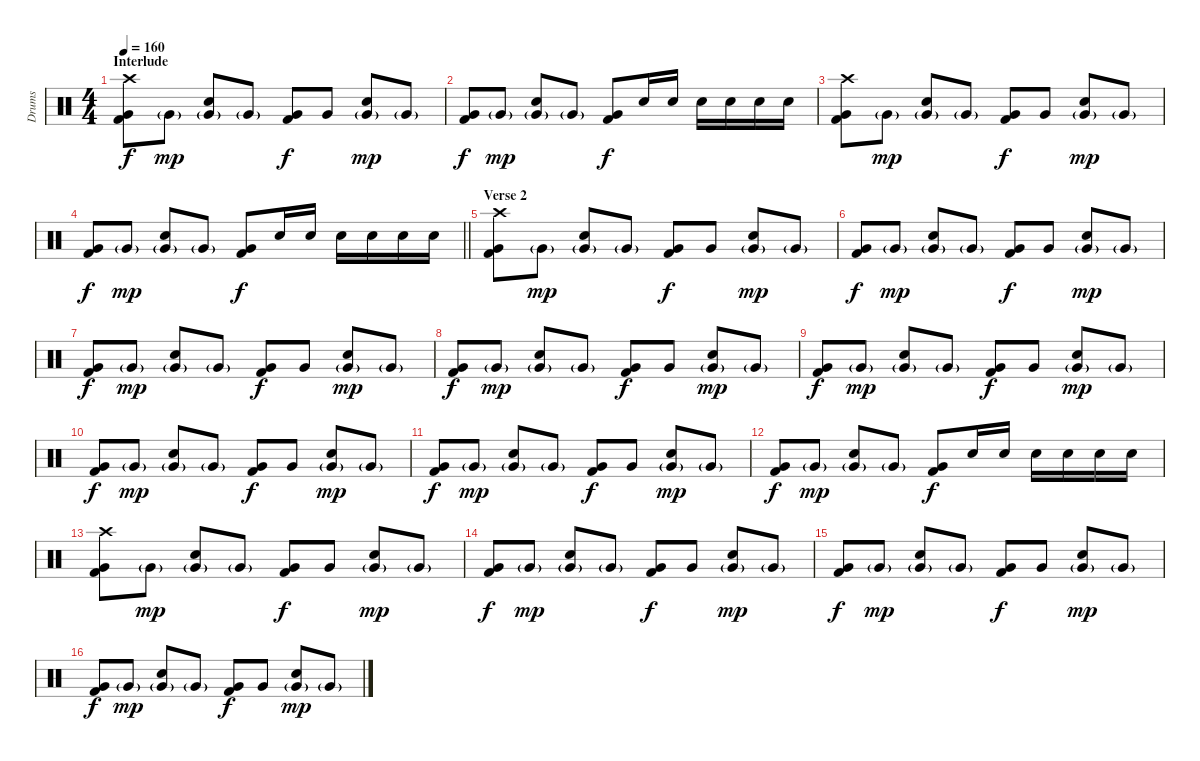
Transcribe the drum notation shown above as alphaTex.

\track ("Drums" "Drums") {instrument percussion}
\staff {score}
\articulation defaults
\ts (4 4)
\section ("" "Interlude")
\tempo 160
\clef neutral
\ks c
("Crash high (hit)" "Very Low Tom (hit)" "Kick (hit) 2").8{dy f} "Very Low Tom (hit)"{g}.8{dy mp} ("Electric Snare (hit)" "Very Low Tom (hit)"{g}).8 "Very Low Tom (hit)"{g}.8 ("Very Low Tom (hit)" "Kick (hit) 2").8{dy f} "Very Low Tom (hit)".8 ("Electric Snare (hit)" "Very Low Tom (hit)"{g}).8{dy mp} "Very Low Tom (hit)"{g}.8 |
("Very Low Tom (hit)" "Kick (hit) 2").8{dy f} "Very Low Tom (hit)"{g}.8{dy mp} ("Electric Snare (hit)" "Very Low Tom (hit)"{g}).8 "Very Low Tom (hit)"{g}.8 ("Very Low Tom (hit)" "Kick (hit) 2").8{dy f} "Electric Snare (hit)".16 "Electric Snare (hit)".16 "Electric Snare (hit)".16 "Electric Snare (hit)".16 "Electric Snare (hit)".16 "Electric Snare (hit)".16 |
("Crash high (hit)" "Very Low Tom (hit)" "Kick (hit) 2").8 "Very Low Tom (hit)"{g}.8{dy mp} ("Electric Snare (hit)" "Very Low Tom (hit)"{g}).8 "Very Low Tom (hit)"{g}.8 ("Very Low Tom (hit)" "Kick (hit) 2").8{dy f} "Very Low Tom (hit)".8 ("Electric Snare (hit)" "Very Low Tom (hit)"{g}).8{dy mp} "Very Low Tom (hit)"{g}.8 |
\barLineRight lightlight
("Very Low Tom (hit)" "Kick (hit) 2").8{dy f} "Very Low Tom (hit)"{g}.8{dy mp} ("Electric Snare (hit)" "Very Low Tom (hit)"{g}).8 "Very Low Tom (hit)"{g}.8 ("Very Low Tom (hit)" "Kick (hit) 2").8{dy f} "Electric Snare (hit)".16 "Electric Snare (hit)".16 "Electric Snare (hit)".16 "Electric Snare (hit)".16 "Electric Snare (hit)".16 "Electric Snare (hit)".16 |
\section ("" "Verse 2")
("Crash high (hit)" "Very Low Tom (hit)" "Kick (hit) 2").8 "Very Low Tom (hit)"{g}.8{dy mp} ("Electric Snare (hit)" "Very Low Tom (hit)"{g}).8 "Very Low Tom (hit)"{g}.8 ("Very Low Tom (hit)" "Kick (hit) 2").8{dy f} "Very Low Tom (hit)".8 ("Electric Snare (hit)" "Very Low Tom (hit)"{g}).8{dy mp} "Very Low Tom (hit)"{g}.8 |
("Very Low Tom (hit)" "Kick (hit) 2").8{dy f} "Very Low Tom (hit)"{g}.8{dy mp} ("Electric Snare (hit)" "Very Low Tom (hit)"{g}).8 "Very Low Tom (hit)"{g}.8 ("Very Low Tom (hit)" "Kick (hit) 2").8{dy f} "Very Low Tom (hit)".8 ("Electric Snare (hit)" "Very Low Tom (hit)"{g}).8{dy mp} "Very Low Tom (hit)"{g}.8 |
("Very Low Tom (hit)" "Kick (hit) 2").8{dy f} "Very Low Tom (hit)"{g}.8{dy mp} ("Electric Snare (hit)" "Very Low Tom (hit)"{g}).8 "Very Low Tom (hit)"{g}.8 ("Very Low Tom (hit)" "Kick (hit) 2").8{dy f} "Very Low Tom (hit)".8 ("Electric Snare (hit)" "Very Low Tom (hit)"{g}).8{dy mp} "Very Low Tom (hit)"{g}.8 |
("Very Low Tom (hit)" "Kick (hit) 2").8{dy f} "Very Low Tom (hit)"{g}.8{dy mp} ("Electric Snare (hit)" "Very Low Tom (hit)"{g}).8 "Very Low Tom (hit)"{g}.8 ("Very Low Tom (hit)" "Kick (hit) 2").8{dy f} "Very Low Tom (hit)".8 ("Electric Snare (hit)" "Very Low Tom (hit)"{g}).8{dy mp} "Very Low Tom (hit)"{g}.8 |
("Very Low Tom (hit)" "Kick (hit) 2").8{dy f} "Very Low Tom (hit)"{g}.8{dy mp} ("Electric Snare (hit)" "Very Low Tom (hit)"{g}).8 "Very Low Tom (hit)"{g}.8 ("Very Low Tom (hit)" "Kick (hit) 2").8{dy f} "Very Low Tom (hit)".8 ("Electric Snare (hit)" "Very Low Tom (hit)"{g}).8{dy mp} "Very Low Tom (hit)"{g}.8 |
("Very Low Tom (hit)" "Kick (hit) 2").8{dy f} "Very Low Tom (hit)"{g}.8{dy mp} ("Electric Snare (hit)" "Very Low Tom (hit)"{g}).8 "Very Low Tom (hit)"{g}.8 ("Very Low Tom (hit)" "Kick (hit) 2").8{dy f} "Very Low Tom (hit)".8 ("Electric Snare (hit)" "Very Low Tom (hit)"{g}).8{dy mp} "Very Low Tom (hit)"{g}.8 |
("Very Low Tom (hit)" "Kick (hit) 2").8{dy f} "Very Low Tom (hit)"{g}.8{dy mp} ("Electric Snare (hit)" "Very Low Tom (hit)"{g}).8 "Very Low Tom (hit)"{g}.8 ("Very Low Tom (hit)" "Kick (hit) 2").8{dy f} "Very Low Tom (hit)".8 ("Electric Snare (hit)" "Very Low Tom (hit)"{g}).8{dy mp} "Very Low Tom (hit)"{g}.8 |
("Very Low Tom (hit)" "Kick (hit) 2").8{dy f} "Very Low Tom (hit)"{g}.8{dy mp} ("Electric Snare (hit)" "Very Low Tom (hit)"{g}).8 "Very Low Tom (hit)"{g}.8 ("Very Low Tom (hit)" "Kick (hit) 2").8{dy f} "Electric Snare (hit)".16 "Electric Snare (hit)".16 "Electric Snare (hit)".16 "Electric Snare (hit)".16 "Electric Snare (hit)".16 "Electric Snare (hit)".16 |
("Crash high (hit)" "Very Low Tom (hit)" "Kick (hit) 2").8 "Very Low Tom (hit)"{g}.8{dy mp} ("Electric Snare (hit)" "Very Low Tom (hit)"{g}).8 "Very Low Tom (hit)"{g}.8 ("Very Low Tom (hit)" "Kick (hit) 2").8{dy f} "Very Low Tom (hit)".8 ("Electric Snare (hit)" "Very Low Tom (hit)"{g}).8{dy mp} "Very Low Tom (hit)"{g}.8 |
("Very Low Tom (hit)" "Kick (hit) 2").8{dy f} "Very Low Tom (hit)"{g}.8{dy mp} ("Electric Snare (hit)" "Very Low Tom (hit)"{g}).8 "Very Low Tom (hit)"{g}.8 ("Very Low Tom (hit)" "Kick (hit) 2").8{dy f} "Very Low Tom (hit)".8 ("Electric Snare (hit)" "Very Low Tom (hit)"{g}).8{dy mp} "Very Low Tom (hit)"{g}.8 |
("Very Low Tom (hit)" "Kick (hit) 2").8{dy f} "Very Low Tom (hit)"{g}.8{dy mp} ("Electric Snare (hit)" "Very Low Tom (hit)"{g}).8 "Very Low Tom (hit)"{g}.8 ("Very Low Tom (hit)" "Kick (hit) 2").8{dy f} "Very Low Tom (hit)".8 ("Electric Snare (hit)" "Very Low Tom (hit)"{g}).8{dy mp} "Very Low Tom (hit)"{g}.8 |
("Very Low Tom (hit)" "Kick (hit) 2").8{dy f} "Very Low Tom (hit)"{g}.8{dy mp} ("Electric Snare (hit)" "Very Low Tom (hit)"{g}).8 "Very Low Tom (hit)"{g}.8 ("Very Low Tom (hit)" "Kick (hit) 2").8{dy f} "Very Low Tom (hit)".8 ("Electric Snare (hit)" "Very Low Tom (hit)"{g}).8{dy mp} "Very Low Tom (hit)"{g}.8
